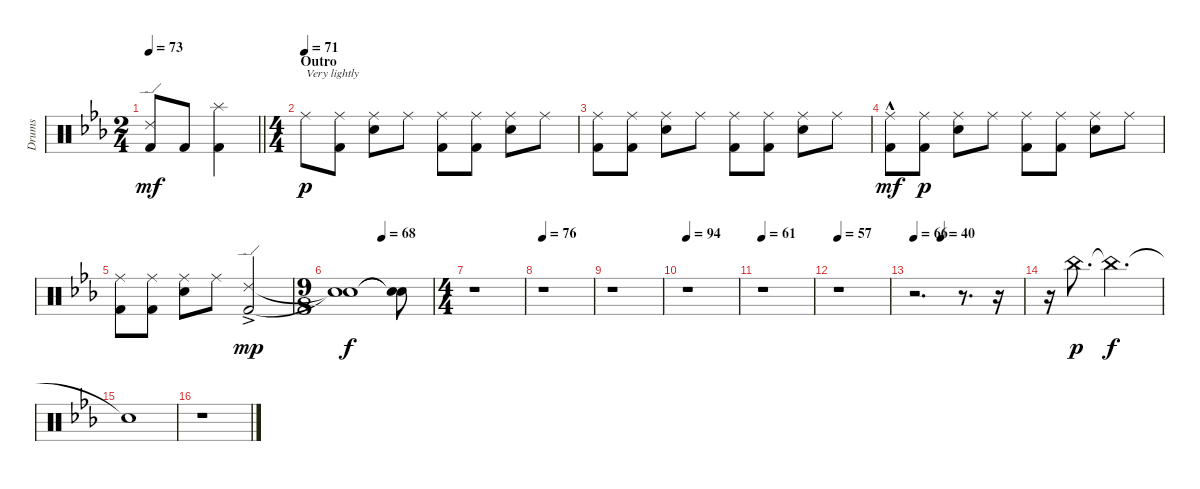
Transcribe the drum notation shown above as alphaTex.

\track ("Drums" "Drums") {instrument percussion}
\staff {score}
\articulation defaults
\ts (2 4)
\tempo 73
\clef neutral
\barLineRight lightlight
\ks eb
("Ride (edge) 2" "Kick (hit) 2").8{dy mf} "Kick (hit) 2".8 ("Splash (hit)" "Kick (hit) 2").4 |
\ts (4 4)
\section ("" "Outro")
\tempo (71)
"Ride (middle)".8{txt "Very lightly" dy p} ("Ride (middle)" "Kick (hit) 2").8 ("Ride (middle)" "Electric Snare (hit)").8 "Ride (middle)".8 ("Ride (middle)" "Kick (hit) 2").8 ("Ride (middle)" "Kick (hit) 2").8 ("Ride (middle)" "Electric Snare (hit)").8 "Ride (middle)".8 |
("Ride (middle)" "Kick (hit) 2").8 ("Ride (middle)" "Kick (hit) 2").8 ("Ride (middle)" "Electric Snare (hit)").8 "Ride (middle)".8 ("Ride (middle)" "Kick (hit) 2").8 ("Ride (middle)" "Kick (hit) 2").8 ("Ride (middle)" "Electric Snare (hit)").8 "Ride (middle)".8 |
("Ride (middle)" "Kick (hit) 2"{hac}).8{dy mf} ("Ride (middle)" "Kick (hit) 2").8{dy p} ("Ride (middle)" "Electric Snare (hit)").8 "Ride (middle)".8 ("Ride (middle)" "Kick (hit) 2").8 ("Ride (middle)" "Kick (hit) 2").8 ("Ride (middle)" "Electric Snare (hit)").8 "Ride (middle)".8 |
("Ride (middle)" "Kick (hit) 2").8 ("Ride (middle)" "Kick (hit) 2").8 ("Ride (middle)" "Electric Snare (hit)").8 "Ride (middle)".8 ("Ride (edge) 2"{ac} "Kick (hit) 2"{ac}).2{dy mp} |
\ts (9 8)
\tempo (68 0.4444444444444444)
("Snare (hit)"{t} "Snare (hit)"{t}).1{dy f} ("Snare (hit)"{t} "Snare (hit)"{t}).8 |
\ts (4 4)
r.1 |
\tempo 76
r.1 |
r.1 |
\tempo 94
r.1 |
\tempo 61
r.1 |
\tempo 57
r.1 |
\tempo 66
\tempo (40 0.25)
r.2{d} r.8{d} r.16 |
r.16 "China (hit)".8{d dy p} "China (hit)"{t}.2{d dy f} |
"Snare (hit)"{t}.1 |
r.1
